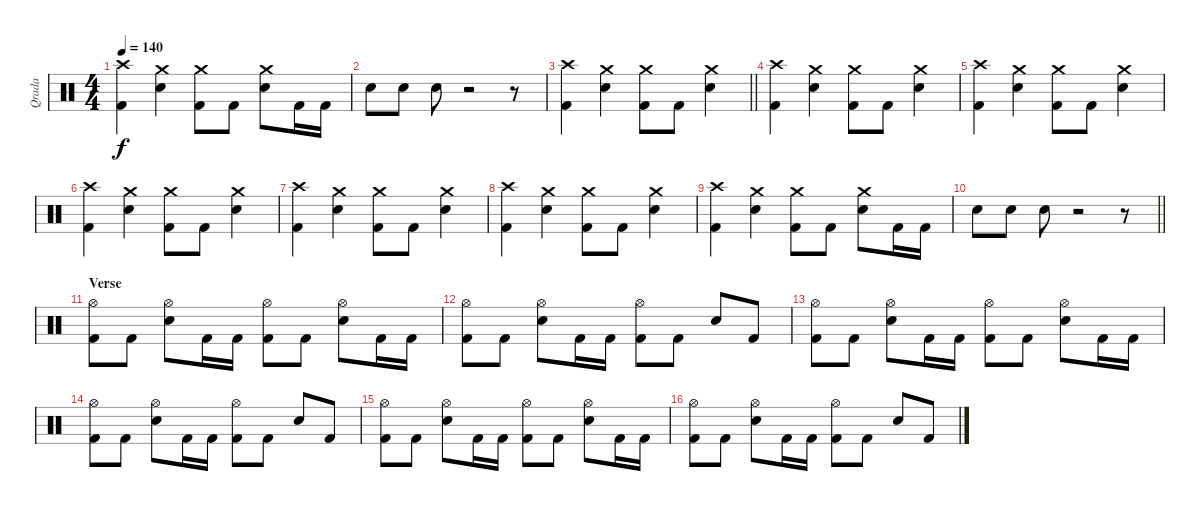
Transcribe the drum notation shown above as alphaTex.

\track ("Qrada" "Qrada") {instrument percussion}
\staff {score}
\articulation defaults
\ts (4 4)
\tempo 140
\clef neutral
\ks c
("Kick (hit) 2" "Crash high (hit)").4{dy f} ("Snare (hit) 2" "Crash medium (hit)").4 ("Kick (hit) 2" "Crash medium (hit)").8 "Kick (hit) 2".8 ("Snare (hit) 2" "Crash medium (hit)").8 "Kick (hit) 2".16 "Kick (hit) 2".16 |
"Snare (hit) 2".8 "Snare (hit) 2".8 "Snare (hit) 2".8 r.2 r.8 |
\barLineRight lightlight
("Kick (hit) 2" "Crash high (hit)").4 ("Snare (hit) 2" "Crash medium (hit)").4 ("Kick (hit) 2" "Crash medium (hit)").8 "Kick (hit) 2".8 ("Snare (hit) 2" "Crash medium (hit)").4 |
\section ("" "")
("Kick (hit) 2" "Crash high (hit)").4 ("Snare (hit) 2" "Crash medium (hit)").4 ("Kick (hit) 2" "Crash medium (hit)").8 "Kick (hit) 2".8 ("Snare (hit) 2" "Crash medium (hit)").4 |
("Kick (hit) 2" "Crash high (hit)").4 ("Snare (hit) 2" "Crash medium (hit)").4 ("Kick (hit) 2" "Crash medium (hit)").8 "Kick (hit) 2".8 ("Snare (hit) 2" "Crash medium (hit)").4 |
("Kick (hit) 2" "Crash high (hit)").4 ("Snare (hit) 2" "Crash medium (hit)").4 ("Kick (hit) 2" "Crash medium (hit)").8 "Kick (hit) 2".8 ("Snare (hit) 2" "Crash medium (hit)").4 |
("Kick (hit) 2" "Crash high (hit)").4 ("Snare (hit) 2" "Crash medium (hit)").4 ("Kick (hit) 2" "Crash medium (hit)").8 "Kick (hit) 2".8 ("Snare (hit) 2" "Crash medium (hit)").4 |
("Kick (hit) 2" "Crash high (hit)").4 ("Snare (hit) 2" "Crash medium (hit)").4 ("Kick (hit) 2" "Crash medium (hit)").8 "Kick (hit) 2".8 ("Snare (hit) 2" "Crash medium (hit)").4 |
("Kick (hit) 2" "Crash high (hit)").4 ("Snare (hit) 2" "Crash medium (hit)").4 ("Kick (hit) 2" "Crash medium (hit)").8 "Kick (hit) 2".8 ("Snare (hit) 2" "Crash medium (hit)").8 "Kick (hit) 2".16 "Kick (hit) 2".16 |
\barLineRight lightlight "Snare (hit) 2".8 "Snare (hit) 2".8 "Snare (hit) 2".8
r.2 r.8 |
\section ("" "Verse")
("Kick (hit) 2" "Hi-Hat (open)").8 "Kick (hit) 2".8 ("Snare (hit) 2" "Hi-Hat (open)").8 "Kick (hit) 2".16 "Kick (hit) 2".16 ("Kick (hit) 2" "Hi-Hat (open)").8 "Kick (hit) 2".8 ("Snare (hit) 2" "Hi-Hat (open)").8 "Kick (hit) 2".16 "Kick (hit) 2".16 |
("Kick (hit) 2" "Hi-Hat (open)").8 "Kick (hit) 2".8 ("Snare (hit) 2" "Hi-Hat (open)").8 "Kick (hit) 2".16 "Kick (hit) 2".16 ("Kick (hit) 2" "Hi-Hat (open)").8 "Kick (hit) 2".8 "Snare (hit) 2".8 "Kick (hit) 2".8 |
("Kick (hit) 2" "Hi-Hat (open)").8 "Kick (hit) 2".8 ("Snare (hit) 2" "Hi-Hat (open)").8 "Kick (hit) 2".16 "Kick (hit) 2".16 ("Kick (hit) 2" "Hi-Hat (open)").8 "Kick (hit) 2".8 ("Snare (hit) 2" "Hi-Hat (open)").8 "Kick (hit) 2".16 "Kick (hit) 2".16 |
("Kick (hit) 2" "Hi-Hat (open)").8 "Kick (hit) 2".8 ("Snare (hit) 2" "Hi-Hat (open)").8 "Kick (hit) 2".16 "Kick (hit) 2".16 ("Kick (hit) 2" "Hi-Hat (open)").8 "Kick (hit) 2".8 "Snare (hit) 2".8 "Kick (hit) 2".8 |
("Kick (hit) 2" "Hi-Hat (open)").8 "Kick (hit) 2".8 ("Snare (hit) 2" "Hi-Hat (open)").8 "Kick (hit) 2".16 "Kick (hit) 2".16 ("Kick (hit) 2" "Hi-Hat (open)").8 "Kick (hit) 2".8 ("Snare (hit) 2" "Hi-Hat (open)").8 "Kick (hit) 2".16 "Kick (hit) 2".16 |
("Kick (hit) 2" "Hi-Hat (open)").8 "Kick (hit) 2".8 ("Snare (hit) 2" "Hi-Hat (open)").8 "Kick (hit) 2".16 "Kick (hit) 2".16 ("Kick (hit) 2" "Hi-Hat (open)").8 "Kick (hit) 2".8 "Snare (hit) 2".8 "Kick (hit) 2".8
